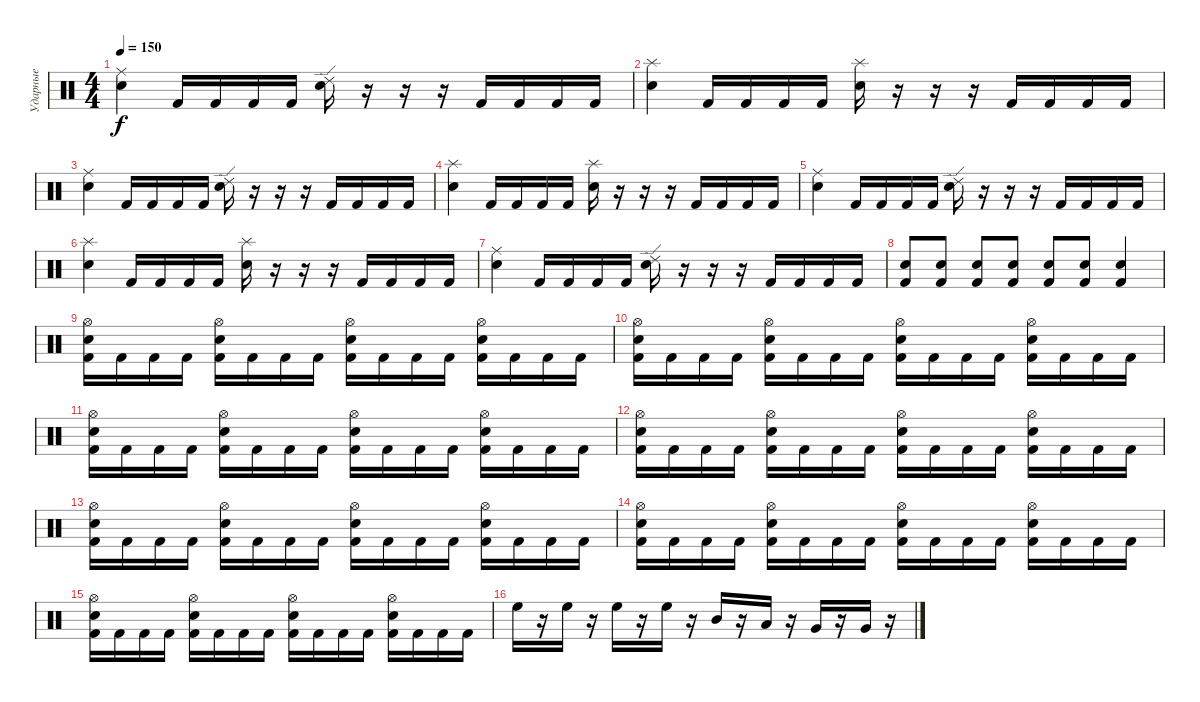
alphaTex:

\track ("Ударные" "Ударные") {instrument percussion}
\staff {score}
\articulation defaults
\ts (4 4)
\tempo 150
\clef neutral
\ks c
("Electric Snare (hit)" "Ride (middle)").4{dy f} "Kick (hit) 2".16 "Kick (hit) 2".16 "Kick (hit) 2".16 "Kick (hit) 2".16 ("Electric Snare (hit)" "Ride (edge) 2").16 r.16 r.16 r.16 "Kick (hit) 2".16 "Kick (hit) 2".16 "Kick (hit) 2".16 "Kick (hit) 2".16 |
("Electric Snare (hit)" "Splash (hit)").4 "Kick (hit) 2".16 "Kick (hit) 2".16 "Kick (hit) 2".16 "Kick (hit) 2".16 ("Electric Snare (hit)" "Splash (hit)").16 r.16 r.16 r.16 "Kick (hit) 2".16 "Kick (hit) 2".16 "Kick (hit) 2".16 "Kick (hit) 2".16 |
("Electric Snare (hit)" "Ride (middle)").4 "Kick (hit) 2".16 "Kick (hit) 2".16 "Kick (hit) 2".16 "Kick (hit) 2".16 ("Electric Snare (hit)" "Ride (edge) 2").16 r.16 r.16 r.16 "Kick (hit) 2".16 "Kick (hit) 2".16 "Kick (hit) 2".16 "Kick (hit) 2".16 |
("Electric Snare (hit)" "Splash (hit)").4 "Kick (hit) 2".16 "Kick (hit) 2".16 "Kick (hit) 2".16 "Kick (hit) 2".16 ("Electric Snare (hit)" "Splash (hit)").16 r.16 r.16 r.16 "Kick (hit) 2".16 "Kick (hit) 2".16 "Kick (hit) 2".16 "Kick (hit) 2".16 |
("Electric Snare (hit)" "Ride (middle)").4 "Kick (hit) 2".16 "Kick (hit) 2".16 "Kick (hit) 2".16 "Kick (hit) 2".16 ("Electric Snare (hit)" "Ride (edge) 2").16 r.16 r.16 r.16 "Kick (hit) 2".16 "Kick (hit) 2".16 "Kick (hit) 2".16 "Kick (hit) 2".16 |
("Electric Snare (hit)" "Splash (hit)").4 "Kick (hit) 2".16 "Kick (hit) 2".16 "Kick (hit) 2".16 "Kick (hit) 2".16 ("Electric Snare (hit)" "Splash (hit)").16 r.16 r.16 r.16 "Kick (hit) 2".16 "Kick (hit) 2".16 "Kick (hit) 2".16 "Kick (hit) 2".16 |
("Electric Snare (hit)" "Ride (middle)").4 "Kick (hit) 2".16 "Kick (hit) 2".16 "Kick (hit) 2".16 "Kick (hit) 2".16 ("Electric Snare (hit)" "Ride (edge) 2").16 r.16 r.16 r.16 "Kick (hit) 2".16 "Kick (hit) 2".16 "Kick (hit) 2".16 "Kick (hit) 2".16 |
("Electric Snare (hit)" "Kick (hit) 2").8 ("Electric Snare (hit)" "Kick (hit) 2").8 ("Electric Snare (hit)" "Kick (hit) 2").8 ("Electric Snare (hit)" "Kick (hit) 2").8 ("Electric Snare (hit)" "Kick (hit) 2").8 ("Electric Snare (hit)" "Kick (hit) 2").8 ("Electric Snare (hit)" "Kick (hit) 2").4 |
("Kick (hit) 2" "Electric Snare (hit)" "Hi-Hat (open)").16 "Kick (hit) 2".16 "Kick (hit) 2".16 "Kick (hit) 2".16 ("Kick (hit) 2" "Electric Snare (hit)" "Hi-Hat (open)").16 "Kick (hit) 2".16 "Kick (hit) 2".16 "Kick (hit) 2".16 ("Kick (hit) 2" "Electric Snare (hit)" "Hi-Hat (open)").16 "Kick (hit) 2".16 "Kick (hit) 2".16 "Kick (hit) 2".16 ("Kick (hit) 2" "Electric Snare (hit)" "Hi-Hat (open)").16 "Kick (hit) 2".16 "Kick (hit) 2".16 "Kick (hit) 2".16 |
("Kick (hit) 2" "Electric Snare (hit)" "Hi-Hat (open)").16 "Kick (hit) 2".16 "Kick (hit) 2".16 "Kick (hit) 2".16 ("Kick (hit) 2" "Electric Snare (hit)" "Hi-Hat (open)").16 "Kick (hit) 2".16 "Kick (hit) 2".16 "Kick (hit) 2".16 ("Kick (hit) 2" "Electric Snare (hit)" "Hi-Hat (open)").16 "Kick (hit) 2".16 "Kick (hit) 2".16 "Kick (hit) 2".16 ("Kick (hit) 2" "Electric Snare (hit)" "Hi-Hat (open)").16 "Kick (hit) 2".16 "Kick (hit) 2".16 "Kick (hit) 2".16 |
("Kick (hit) 2" "Electric Snare (hit)" "Hi-Hat (open)").16 "Kick (hit) 2".16 "Kick (hit) 2".16 "Kick (hit) 2".16 ("Kick (hit) 2" "Electric Snare (hit)" "Hi-Hat (open)").16 "Kick (hit) 2".16 "Kick (hit) 2".16 "Kick (hit) 2".16 ("Kick (hit) 2" "Electric Snare (hit)" "Hi-Hat (open)").16 "Kick (hit) 2".16 "Kick (hit) 2".16 "Kick (hit) 2".16 ("Kick (hit) 2" "Electric Snare (hit)" "Hi-Hat (open)").16 "Kick (hit) 2".16 "Kick (hit) 2".16 "Kick (hit) 2".16 |
("Kick (hit) 2" "Electric Snare (hit)" "Hi-Hat (open)").16 "Kick (hit) 2".16 "Kick (hit) 2".16 "Kick (hit) 2".16 ("Kick (hit) 2" "Electric Snare (hit)" "Hi-Hat (open)").16 "Kick (hit) 2".16 "Kick (hit) 2".16 "Kick (hit) 2".16 ("Kick (hit) 2" "Electric Snare (hit)" "Hi-Hat (open)").16 "Kick (hit) 2".16 "Kick (hit) 2".16 "Kick (hit) 2".16 ("Kick (hit) 2" "Electric Snare (hit)" "Hi-Hat (open)").16 "Kick (hit) 2".16 "Kick (hit) 2".16 "Kick (hit) 2".16 |
("Kick (hit) 2" "Electric Snare (hit)" "Hi-Hat (open)").16 "Kick (hit) 2".16 "Kick (hit) 2".16 "Kick (hit) 2".16 ("Kick (hit) 2" "Electric Snare (hit)" "Hi-Hat (open)").16 "Kick (hit) 2".16 "Kick (hit) 2".16 "Kick (hit) 2".16 ("Kick (hit) 2" "Electric Snare (hit)" "Hi-Hat (open)").16 "Kick (hit) 2".16 "Kick (hit) 2".16 "Kick (hit) 2".16 ("Kick (hit) 2" "Electric Snare (hit)" "Hi-Hat (open)").16 "Kick (hit) 2".16 "Kick (hit) 2".16 "Kick (hit) 2".16 |
("Kick (hit) 2" "Electric Snare (hit)" "Hi-Hat (open)").16 "Kick (hit) 2".16 "Kick (hit) 2".16 "Kick (hit) 2".16 ("Kick (hit) 2" "Electric Snare (hit)" "Hi-Hat (open)").16 "Kick (hit) 2".16 "Kick (hit) 2".16 "Kick (hit) 2".16 ("Kick (hit) 2" "Electric Snare (hit)" "Hi-Hat (open)").16 "Kick (hit) 2".16 "Kick (hit) 2".16 "Kick (hit) 2".16 ("Kick (hit) 2" "Electric Snare (hit)" "Hi-Hat (open)").16 "Kick (hit) 2".16 "Kick (hit) 2".16 "Kick (hit) 2".16 |
("Kick (hit) 2" "Electric Snare (hit)" "Hi-Hat (open)").16 "Kick (hit) 2".16 "Kick (hit) 2".16 "Kick (hit) 2".16 ("Kick (hit) 2" "Electric Snare (hit)" "Hi-Hat (open)").16 "Kick (hit) 2".16 "Kick (hit) 2".16 "Kick (hit) 2".16 ("Kick (hit) 2" "Electric Snare (hit)" "Hi-Hat (open)").16 "Kick (hit) 2".16 "Kick (hit) 2".16 "Kick (hit) 2".16 ("Kick (hit) 2" "Electric Snare (hit)" "Hi-Hat (open)").16 "Kick (hit) 2".16 "Kick (hit) 2".16 "Kick (hit) 2".16 |
"High Floor Tom (hit)".16 r.16 "High Floor Tom (hit)".16 r.16 "High Floor Tom (hit)".16 r.16 "High Floor Tom (hit)".16 r.16 "Mid Tom (hit)".16 r.16 "Low Tom (hit)".16 r.16 "Very Low Tom (hit)".16 r.16 "Very Low Tom (hit)".16 r.16
